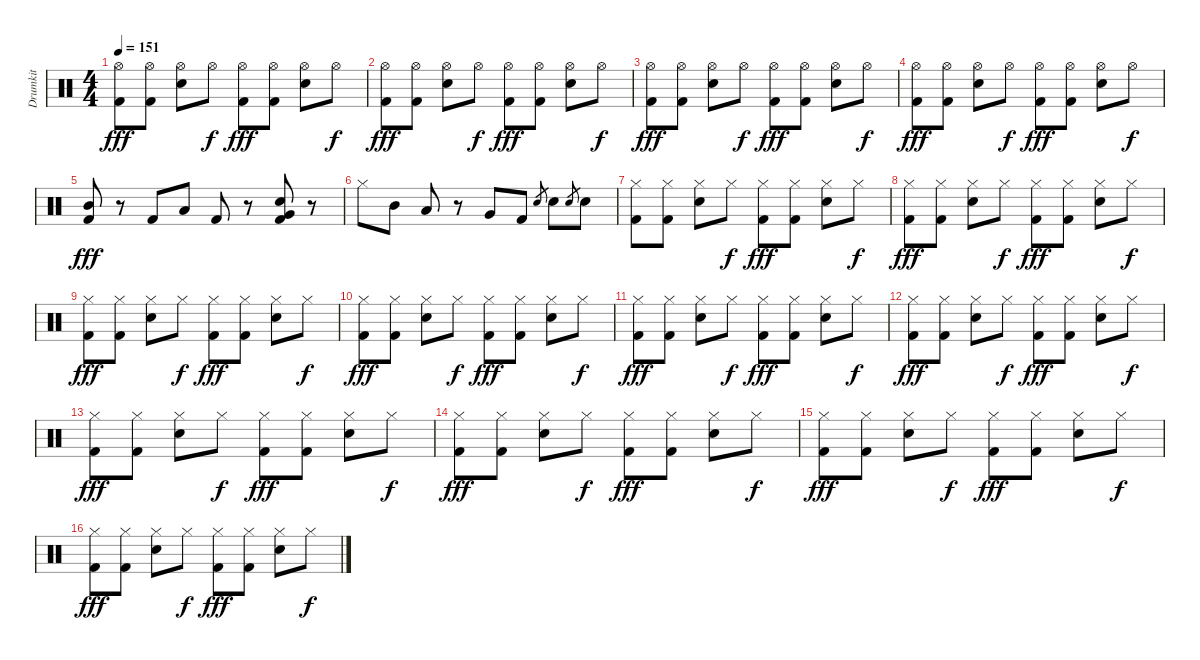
\track ("Drumkit" "Drumkit") {instrument percussion}
\staff {score}
\articulation defaults
\ts (4 4)
\tempo 151
\clef neutral
\ks c
("Kick (hit) 2" "Hi-Hat (open)").8{dy fff} ("Hi-Hat (open)" "Kick (hit) 2").8 ("Electric Snare (hit)" "Hi-Hat (open)").8 "Hi-Hat (open)".8{dy f} ("Kick (hit) 2" "Hi-Hat (open)").8{dy fff} ("Kick (hit) 2" "Hi-Hat (open)").8 ("Electric Snare (hit)" "Hi-Hat (open)").8 "Hi-Hat (open)".8{dy f} |
("Kick (hit) 2" "Hi-Hat (open)").8{dy fff} ("Hi-Hat (open)" "Kick (hit) 2").8 ("Electric Snare (hit)" "Hi-Hat (open)").8 "Hi-Hat (open)".8{dy f} ("Kick (hit) 2" "Hi-Hat (open)").8{dy fff} ("Kick (hit) 2" "Hi-Hat (open)").8 ("Electric Snare (hit)" "Hi-Hat (open)").8 "Hi-Hat (open)".8{dy f} |
("Kick (hit) 2" "Hi-Hat (open)").8{dy fff} ("Hi-Hat (open)" "Kick (hit) 2").8 ("Electric Snare (hit)" "Hi-Hat (open)").8 "Hi-Hat (open)".8{dy f} ("Kick (hit) 2" "Hi-Hat (open)").8{dy fff} ("Kick (hit) 2" "Hi-Hat (open)").8 ("Electric Snare (hit)" "Hi-Hat (open)").8 "Hi-Hat (open)".8{dy f} |
("Kick (hit) 2" "Hi-Hat (open)").8{dy fff} ("Hi-Hat (open)" "Kick (hit) 2").8 ("Electric Snare (hit)" "Hi-Hat (open)").8 "Hi-Hat (open)".8{dy f} ("Kick (hit) 2" "Hi-Hat (open)").8{dy fff} ("Kick (hit) 2" "Hi-Hat (open)").8 ("Electric Snare (hit)" "Hi-Hat (open)").8 "Hi-Hat (open)".8{dy f} |
("Kick (hit) 2" "Mid Tom (hit)").8{dy fff} r.8 "Kick (hit) 2".8 "Low Tom (hit)".8 "Kick (hit) 2".8 r.8 ("Kick (hit) 2" "Very Low Tom (hit)" "Electric Snare (hit)").8 r.8 |
"Hi-Hat (closed)".8 "Mid Tom (hit)".8 "Low Tom (hit)".8 r.8 "Very Low Tom (hit)".8 "Kick (hit) 2".8 "Electric Snare (hit)".8{gr} "Electric Snare (hit)".8 "Electric Snare (hit)".8{gr} "Electric Snare (hit)".8 |
("Kick (hit) 2" "Hi-Hat (closed)").8 ("Kick (hit) 2" "Hi-Hat (closed)").8 ("Electric Snare (hit)" "Hi-Hat (closed)").8 "Hi-Hat (closed)".8{dy f} ("Kick (hit) 2" "Hi-Hat (closed)").8{dy fff} ("Kick (hit) 2" "Hi-Hat (closed)").8 ("Electric Snare (hit)" "Hi-Hat (closed)").8 "Hi-Hat (closed)".8{dy f} |
("Kick (hit) 2" "Hi-Hat (closed)").8{dy fff} ("Kick (hit) 2" "Hi-Hat (closed)").8 ("Electric Snare (hit)" "Hi-Hat (closed)").8 "Hi-Hat (closed)".8{dy f} ("Kick (hit) 2" "Hi-Hat (closed)").8{dy fff} ("Kick (hit) 2" "Hi-Hat (closed)").8 ("Electric Snare (hit)" "Hi-Hat (closed)").8 "Hi-Hat (closed)".8{dy f} |
("Kick (hit) 2" "Hi-Hat (closed)").8{dy fff} ("Kick (hit) 2" "Hi-Hat (closed)").8 ("Electric Snare (hit)" "Hi-Hat (closed)").8 "Hi-Hat (closed)".8{dy f} ("Kick (hit) 2" "Hi-Hat (closed)").8{dy fff} ("Kick (hit) 2" "Hi-Hat (closed)").8 ("Electric Snare (hit)" "Hi-Hat (closed)").8 "Hi-Hat (closed)".8{dy f} |
("Kick (hit) 2" "Hi-Hat (closed)").8{dy fff} ("Kick (hit) 2" "Hi-Hat (closed)").8 ("Electric Snare (hit)" "Hi-Hat (closed)").8 "Hi-Hat (closed)".8{dy f} ("Kick (hit) 2" "Hi-Hat (closed)").8{dy fff} ("Kick (hit) 2" "Hi-Hat (closed)").8 ("Electric Snare (hit)" "Hi-Hat (closed)").8 "Hi-Hat (closed)".8{dy f} |
("Kick (hit) 2" "Hi-Hat (closed)").8{dy fff} ("Kick (hit) 2" "Hi-Hat (closed)").8 ("Electric Snare (hit)" "Hi-Hat (closed)").8 "Hi-Hat (closed)".8{dy f} ("Kick (hit) 2" "Hi-Hat (closed)").8{dy fff} ("Kick (hit) 2" "Hi-Hat (closed)").8 ("Electric Snare (hit)" "Hi-Hat (closed)").8 "Hi-Hat (closed)".8{dy f} |
("Kick (hit) 2" "Hi-Hat (closed)").8{dy fff} ("Kick (hit) 2" "Hi-Hat (closed)").8 ("Electric Snare (hit)" "Hi-Hat (closed)").8 "Hi-Hat (closed)".8{dy f} ("Kick (hit) 2" "Hi-Hat (closed)").8{dy fff} ("Kick (hit) 2" "Hi-Hat (closed)").8 ("Electric Snare (hit)" "Hi-Hat (closed)").8 "Hi-Hat (closed)".8{dy f} |
("Kick (hit) 2" "Hi-Hat (closed)").8{dy fff} ("Kick (hit) 2" "Hi-Hat (closed)").8 ("Electric Snare (hit)" "Hi-Hat (closed)").8 "Hi-Hat (closed)".8{dy f} ("Kick (hit) 2" "Hi-Hat (closed)").8{dy fff} ("Kick (hit) 2" "Hi-Hat (closed)").8 ("Electric Snare (hit)" "Hi-Hat (closed)").8 "Hi-Hat (closed)".8{dy f} |
("Kick (hit) 2" "Hi-Hat (closed)").8{dy fff} ("Kick (hit) 2" "Hi-Hat (closed)").8 ("Electric Snare (hit)" "Hi-Hat (closed)").8 "Hi-Hat (closed)".8{dy f} ("Kick (hit) 2" "Hi-Hat (closed)").8{dy fff} ("Kick (hit) 2" "Hi-Hat (closed)").8 ("Electric Snare (hit)" "Hi-Hat (closed)").8 "Hi-Hat (closed)".8{dy f} |
("Kick (hit) 2" "Hi-Hat (closed)").8{dy fff} ("Kick (hit) 2" "Hi-Hat (closed)").8 ("Electric Snare (hit)" "Hi-Hat (closed)").8 "Hi-Hat (closed)".8{dy f} ("Kick (hit) 2" "Hi-Hat (closed)").8{dy fff} ("Kick (hit) 2" "Hi-Hat (closed)").8 ("Electric Snare (hit)" "Hi-Hat (closed)").8 "Hi-Hat (closed)".8{dy f} |
("Kick (hit) 2" "Hi-Hat (closed)").8{dy fff} ("Kick (hit) 2" "Hi-Hat (closed)").8 ("Electric Snare (hit)" "Hi-Hat (closed)").8 "Hi-Hat (closed)".8{dy f} ("Kick (hit) 2" "Hi-Hat (closed)").8{dy fff} ("Kick (hit) 2" "Hi-Hat (closed)").8 ("Electric Snare (hit)" "Hi-Hat (closed)").8 "Hi-Hat (closed)".8{dy f}
